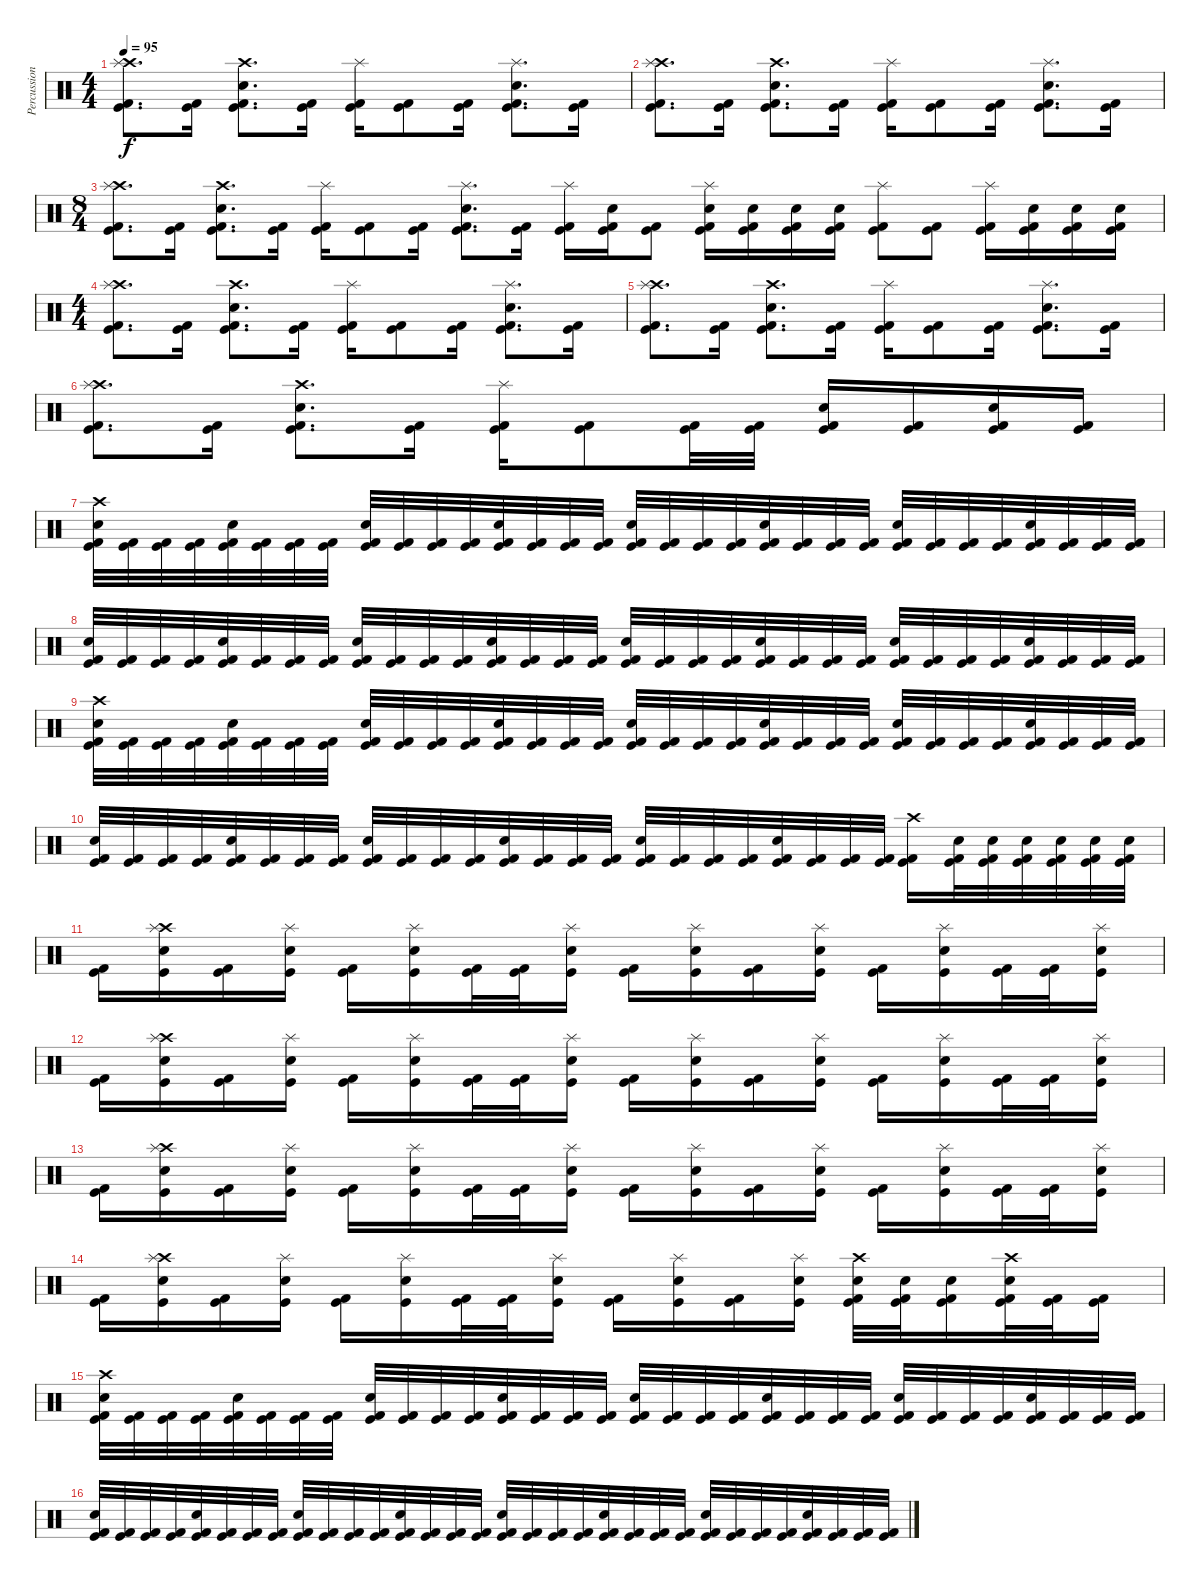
\track ("Percussion" "Percussion") {instrument percussion}
\staff {score}
\articulation defaults
\ts (4 4)
\tempo 95
\clef neutral
\ks c
("Crash high (hit)" "Splash (hit)" "Kick (hit)" "Kick (hit) 2").8{d dy f} ("Kick (hit)" "Kick (hit) 2").16 ("Crash high (hit)" "Snare (hit) 2" "Kick (hit)" "Kick (hit) 2").8{d} ("Kick (hit)" "Kick (hit) 2").16 ("Splash (hit)" "Kick (hit)" "Kick (hit) 2").16 ("Kick (hit)" "Kick (hit) 2").8 ("Kick (hit)" "Kick (hit) 2").16 ("Splash (hit)" "Snare (hit) 2" "Kick (hit)" "Kick (hit) 2").8{d} ("Kick (hit)" "Kick (hit) 2").16 |
("Crash high (hit)" "Splash (hit)" "Kick (hit)" "Kick (hit) 2").8{d} ("Kick (hit)" "Kick (hit) 2").16 ("Crash high (hit)" "Snare (hit) 2" "Kick (hit)" "Kick (hit) 2").8{d} ("Kick (hit)" "Kick (hit) 2").16 ("Splash (hit)" "Kick (hit)" "Kick (hit) 2").16 ("Kick (hit)" "Kick (hit) 2").8 ("Kick (hit)" "Kick (hit) 2").16 ("Splash (hit)" "Snare (hit) 2" "Kick (hit)" "Kick (hit) 2").8{d} ("Kick (hit)" "Kick (hit) 2").16 |
\ts (8 4)
("Crash high (hit)" "Splash (hit)" "Kick (hit)" "Kick (hit) 2").8{d} ("Kick (hit)" "Kick (hit) 2").16 ("Crash high (hit)" "Snare (hit) 2" "Kick (hit)" "Kick (hit) 2").8{d} ("Kick (hit)" "Kick (hit) 2").16 ("Splash (hit)" "Kick (hit)" "Kick (hit) 2").16 ("Kick (hit)" "Kick (hit) 2").8 ("Kick (hit)" "Kick (hit) 2").16 ("Splash (hit)" "Snare (hit) 2" "Kick (hit)" "Kick (hit) 2").8{d} ("Kick (hit)" "Kick (hit) 2").16 ("Splash (hit)" "Kick (hit)" "Kick (hit) 2").16 ("Snare (hit) 2" "Kick (hit)" "Kick (hit) 2").16 ("Kick (hit)" "Kick (hit) 2").8 ("Splash (hit)" "Snare (hit) 2" "Kick (hit)" "Kick (hit) 2").16 ("Snare (hit) 2" "Kick (hit)" "Kick (hit) 2").16 ("Snare (hit) 2" "Kick (hit)" "Kick (hit) 2").16 ("Snare (hit) 2" "Kick (hit)" "Kick (hit) 2").16 ("Splash (hit)" "Kick (hit)" "Kick (hit) 2").8 ("Kick (hit) 2" "Kick (hit)").8 ("Splash (hit)" "Kick (hit) 2" "Kick (hit)").16 ("Snare (hit) 2" "Kick (hit) 2" "Kick (hit)").16 ("Snare (hit) 2" "Kick (hit) 2" "Kick (hit)").16 ("Snare (hit) 2" "Kick (hit) 2" "Kick (hit)").16 |
\ts (4 4)
("Crash high (hit)" "Splash (hit)" "Kick (hit)" "Kick (hit) 2").8{d} ("Kick (hit)" "Kick (hit) 2").16 ("Crash high (hit)" "Snare (hit) 2" "Kick (hit)" "Kick (hit) 2").8{d} ("Kick (hit)" "Kick (hit) 2").16 ("Splash (hit)" "Kick (hit)" "Kick (hit) 2").16 ("Kick (hit)" "Kick (hit) 2").8 ("Kick (hit)" "Kick (hit) 2").16 ("Splash (hit)" "Snare (hit) 2" "Kick (hit)" "Kick (hit) 2").8{d} ("Kick (hit)" "Kick (hit) 2").16 |
("Crash high (hit)" "Splash (hit)" "Kick (hit)" "Kick (hit) 2").8{d} ("Kick (hit)" "Kick (hit) 2").16 ("Crash high (hit)" "Snare (hit) 2" "Kick (hit)" "Kick (hit) 2").8{d} ("Kick (hit)" "Kick (hit) 2").16 ("Splash (hit)" "Kick (hit)" "Kick (hit) 2").16 ("Kick (hit)" "Kick (hit) 2").8 ("Kick (hit)" "Kick (hit) 2").16 ("Splash (hit)" "Snare (hit) 2" "Kick (hit)" "Kick (hit) 2").8{d} ("Kick (hit)" "Kick (hit) 2").16 |
("Crash high (hit)" "Splash (hit)" "Kick (hit)" "Kick (hit) 2").8{d} ("Kick (hit)" "Kick (hit) 2").16 ("Crash high (hit)" "Snare (hit) 2" "Kick (hit)" "Kick (hit) 2").8{d} ("Kick (hit)" "Kick (hit) 2").16 ("Splash (hit)" "Kick (hit)" "Kick (hit) 2").16 ("Kick (hit)" "Kick (hit) 2").8 ("Kick (hit)" "Kick (hit) 2").32 ("Kick (hit)" "Kick (hit) 2").32 ("Snare (hit) 2" "Kick (hit)" "Kick (hit) 2").16 ("Kick (hit)" "Kick (hit) 2").16 ("Snare (hit) 2" "Kick (hit)" "Kick (hit) 2").16 ("Kick (hit)" "Kick (hit) 2").16 |
("Crash high (hit)" "Snare (hit) 2" "Kick (hit) 2" "Kick (hit)").32 ("Kick (hit) 2" "Kick (hit)").32 ("Kick (hit) 2" "Kick (hit)").32 ("Kick (hit) 2" "Kick (hit)").32 ("Snare (hit) 2" "Kick (hit) 2" "Kick (hit)").32 ("Kick (hit) 2" "Kick (hit)").32 ("Kick (hit) 2" "Kick (hit)").32 ("Kick (hit) 2" "Kick (hit)").32 ("Snare (hit) 2" "Kick (hit) 2" "Kick (hit)").32 ("Kick (hit) 2" "Kick (hit)").32 ("Kick (hit) 2" "Kick (hit)").32 ("Kick (hit) 2" "Kick (hit)").32 ("Snare (hit) 2" "Kick (hit) 2" "Kick (hit)").32 ("Kick (hit) 2" "Kick (hit)").32 ("Kick (hit) 2" "Kick (hit)").32 ("Kick (hit) 2" "Kick (hit)").32 ("Snare (hit) 2" "Kick (hit) 2" "Kick (hit)").32 ("Kick (hit) 2" "Kick (hit)").32 ("Kick (hit) 2" "Kick (hit)").32 ("Kick (hit) 2" "Kick (hit)").32 ("Snare (hit) 2" "Kick (hit) 2" "Kick (hit)").32 ("Kick (hit) 2" "Kick (hit)").32 ("Kick (hit) 2" "Kick (hit)").32 ("Kick (hit) 2" "Kick (hit)").32 ("Snare (hit) 2" "Kick (hit) 2" "Kick (hit)").32 ("Kick (hit) 2" "Kick (hit)").32 ("Kick (hit) 2" "Kick (hit)").32 ("Kick (hit) 2" "Kick (hit)").32 ("Snare (hit) 2" "Kick (hit) 2" "Kick (hit)").32 ("Kick (hit) 2" "Kick (hit)").32 ("Kick (hit) 2" "Kick (hit)").32 ("Kick (hit) 2" "Kick (hit)").32 |
("Snare (hit) 2" "Kick (hit) 2" "Kick (hit)").32 ("Kick (hit) 2" "Kick (hit)").32 ("Kick (hit) 2" "Kick (hit)").32 ("Kick (hit) 2" "Kick (hit)").32 ("Snare (hit) 2" "Kick (hit) 2" "Kick (hit)").32 ("Kick (hit) 2" "Kick (hit)").32 ("Kick (hit) 2" "Kick (hit)").32 ("Kick (hit) 2" "Kick (hit)").32 ("Snare (hit) 2" "Kick (hit) 2" "Kick (hit)").32 ("Kick (hit) 2" "Kick (hit)").32 ("Kick (hit) 2" "Kick (hit)").32 ("Kick (hit) 2" "Kick (hit)").32 ("Snare (hit) 2" "Kick (hit) 2" "Kick (hit)").32 ("Kick (hit) 2" "Kick (hit)").32 ("Kick (hit) 2" "Kick (hit)").32 ("Kick (hit) 2" "Kick (hit)").32 ("Snare (hit) 2" "Kick (hit) 2" "Kick (hit)").32 ("Kick (hit) 2" "Kick (hit)").32 ("Kick (hit) 2" "Kick (hit)").32 ("Kick (hit) 2" "Kick (hit)").32 ("Snare (hit) 2" "Kick (hit) 2" "Kick (hit)").32 ("Kick (hit) 2" "Kick (hit)").32 ("Kick (hit) 2" "Kick (hit)").32 ("Kick (hit) 2" "Kick (hit)").32 ("Snare (hit) 2" "Kick (hit) 2" "Kick (hit)").32 ("Kick (hit) 2" "Kick (hit)").32 ("Kick (hit) 2" "Kick (hit)").32 ("Kick (hit) 2" "Kick (hit)").32 ("Snare (hit) 2" "Kick (hit) 2" "Kick (hit)").32 ("Kick (hit) 2" "Kick (hit)").32 ("Kick (hit) 2" "Kick (hit)").32 ("Kick (hit) 2" "Kick (hit)").32 |
("Crash high (hit)" "Snare (hit) 2" "Kick (hit) 2" "Kick (hit)").32 ("Kick (hit) 2" "Kick (hit)").32 ("Kick (hit) 2" "Kick (hit)").32 ("Kick (hit) 2" "Kick (hit)").32 ("Snare (hit) 2" "Kick (hit) 2" "Kick (hit)").32 ("Kick (hit) 2" "Kick (hit)").32 ("Kick (hit) 2" "Kick (hit)").32 ("Kick (hit) 2" "Kick (hit)").32 ("Snare (hit) 2" "Kick (hit) 2" "Kick (hit)").32 ("Kick (hit) 2" "Kick (hit)").32 ("Kick (hit) 2" "Kick (hit)").32 ("Kick (hit) 2" "Kick (hit)").32 ("Snare (hit) 2" "Kick (hit) 2" "Kick (hit)").32 ("Kick (hit) 2" "Kick (hit)").32 ("Kick (hit) 2" "Kick (hit)").32 ("Kick (hit) 2" "Kick (hit)").32 ("Snare (hit) 2" "Kick (hit) 2" "Kick (hit)").32 ("Kick (hit) 2" "Kick (hit)").32 ("Kick (hit) 2" "Kick (hit)").32 ("Kick (hit) 2" "Kick (hit)").32 ("Snare (hit) 2" "Kick (hit) 2" "Kick (hit)").32 ("Kick (hit) 2" "Kick (hit)").32 ("Kick (hit) 2" "Kick (hit)").32 ("Kick (hit) 2" "Kick (hit)").32 ("Snare (hit) 2" "Kick (hit) 2" "Kick (hit)").32 ("Kick (hit) 2" "Kick (hit)").32 ("Kick (hit) 2" "Kick (hit)").32 ("Kick (hit) 2" "Kick (hit)").32 ("Snare (hit) 2" "Kick (hit) 2" "Kick (hit)").32 ("Kick (hit) 2" "Kick (hit)").32 ("Kick (hit) 2" "Kick (hit)").32 ("Kick (hit) 2" "Kick (hit)").32 |
("Snare (hit) 2" "Kick (hit) 2" "Kick (hit)").32 ("Kick (hit) 2" "Kick (hit)").32 ("Kick (hit) 2" "Kick (hit)").32 ("Kick (hit) 2" "Kick (hit)").32 ("Snare (hit) 2" "Kick (hit) 2" "Kick (hit)").32 ("Kick (hit) 2" "Kick (hit)").32 ("Kick (hit) 2" "Kick (hit)").32 ("Kick (hit) 2" "Kick (hit)").32 ("Snare (hit) 2" "Kick (hit) 2" "Kick (hit)").32 ("Kick (hit) 2" "Kick (hit)").32 ("Kick (hit) 2" "Kick (hit)").32 ("Kick (hit) 2" "Kick (hit)").32 ("Snare (hit) 2" "Kick (hit) 2" "Kick (hit)").32 ("Kick (hit) 2" "Kick (hit)").32 ("Kick (hit) 2" "Kick (hit)").32 ("Kick (hit) 2" "Kick (hit)").32 ("Snare (hit) 2" "Kick (hit) 2" "Kick (hit)").32 ("Kick (hit) 2" "Kick (hit)").32 ("Kick (hit) 2" "Kick (hit)").32 ("Kick (hit) 2" "Kick (hit)").32 ("Snare (hit) 2" "Kick (hit) 2" "Kick (hit)").32 ("Kick (hit) 2" "Kick (hit)").32 ("Kick (hit) 2" "Kick (hit)").32 ("Kick (hit) 2" "Kick (hit)").32 ("Crash high (hit)" "Kick (hit) 2" "Kick (hit)").16 ("Snare (hit) 2" "Kick (hit) 2" "Kick (hit)").32 ("Snare (hit) 2" "Kick (hit) 2" "Kick (hit)").32 ("Snare (hit) 2" "Kick (hit) 2" "Kick (hit)").32 ("Snare (hit) 2" "Kick (hit) 2" "Kick (hit)").32 ("Snare (hit) 2" "Kick (hit) 2" "Kick (hit)").32 ("Snare (hit) 2" "Kick (hit) 2" "Kick (hit)").32 |
("Kick (hit)" "Kick (hit) 2").16 ("Snare (hit) 2" "Kick (hit)" "Crash high (hit)" "Splash (hit)").16 ("Kick (hit)" "Kick (hit) 2").16 ("Snare (hit) 2" "Kick (hit)" "Splash (hit)").16 ("Kick (hit)" "Kick (hit) 2").16 ("Snare (hit) 2" "Kick (hit)" "Splash (hit)").16 ("Kick (hit)" "Kick (hit) 2").32 ("Kick (hit)" "Kick (hit) 2").32 ("Snare (hit) 2" "Kick (hit)" "Splash (hit)").16 ("Kick (hit)" "Kick (hit) 2").16 ("Snare (hit) 2" "Kick (hit)" "Splash (hit)").16 ("Kick (hit)" "Kick (hit) 2").16 ("Snare (hit) 2" "Kick (hit)" "Splash (hit)").16 ("Kick (hit)" "Kick (hit) 2").16 ("Snare (hit) 2" "Kick (hit)" "Splash (hit)").16 ("Kick (hit)" "Kick (hit) 2").32 ("Kick (hit)" "Kick (hit) 2").32 ("Snare (hit) 2" "Kick (hit)" "Splash (hit)").16 |
("Kick (hit)" "Kick (hit) 2").16 ("Snare (hit) 2" "Kick (hit)" "Crash high (hit)" "Splash (hit)").16 ("Kick (hit)" "Kick (hit) 2").16 ("Snare (hit) 2" "Kick (hit)" "Splash (hit)").16 ("Kick (hit)" "Kick (hit) 2").16 ("Snare (hit) 2" "Kick (hit)" "Splash (hit)").16 ("Kick (hit)" "Kick (hit) 2").32 ("Kick (hit)" "Kick (hit) 2").32 ("Snare (hit) 2" "Kick (hit)" "Splash (hit)").16 ("Kick (hit)" "Kick (hit) 2").16 ("Snare (hit) 2" "Kick (hit)" "Splash (hit)").16 ("Kick (hit)" "Kick (hit) 2").16 ("Snare (hit) 2" "Kick (hit)" "Splash (hit)").16 ("Kick (hit)" "Kick (hit) 2").16 ("Snare (hit) 2" "Kick (hit)" "Splash (hit)").16 ("Kick (hit)" "Kick (hit) 2").32 ("Kick (hit)" "Kick (hit) 2").32 ("Snare (hit) 2" "Kick (hit)" "Splash (hit)").16 |
("Kick (hit)" "Kick (hit) 2").16 ("Snare (hit) 2" "Kick (hit)" "Crash high (hit)" "Splash (hit)").16 ("Kick (hit)" "Kick (hit) 2").16 ("Snare (hit) 2" "Kick (hit)" "Splash (hit)").16 ("Kick (hit)" "Kick (hit) 2").16 ("Snare (hit) 2" "Kick (hit)" "Splash (hit)").16 ("Kick (hit)" "Kick (hit) 2").32 ("Kick (hit)" "Kick (hit) 2").32 ("Snare (hit) 2" "Kick (hit)" "Splash (hit)").16 ("Kick (hit)" "Kick (hit) 2").16 ("Snare (hit) 2" "Kick (hit)" "Splash (hit)").16 ("Kick (hit)" "Kick (hit) 2").16 ("Snare (hit) 2" "Kick (hit)" "Splash (hit)").16 ("Kick (hit)" "Kick (hit) 2").16 ("Snare (hit) 2" "Kick (hit)" "Splash (hit)").16 ("Kick (hit)" "Kick (hit) 2").32 ("Kick (hit)" "Kick (hit) 2").32 ("Snare (hit) 2" "Kick (hit)" "Splash (hit)").16 |
("Kick (hit)" "Kick (hit) 2").16 ("Snare (hit) 2" "Kick (hit)" "Crash high (hit)" "Splash (hit)").16 ("Kick (hit)" "Kick (hit) 2").16 ("Snare (hit) 2" "Kick (hit)" "Splash (hit)").16 ("Kick (hit)" "Kick (hit) 2").16 ("Snare (hit) 2" "Kick (hit)" "Splash (hit)").16 ("Kick (hit)" "Kick (hit) 2").32 ("Kick (hit)" "Kick (hit) 2").32 ("Snare (hit) 2" "Kick (hit)" "Splash (hit)").16 ("Kick (hit)" "Kick (hit) 2").16 ("Snare (hit) 2" "Kick (hit)" "Splash (hit)").16 ("Kick (hit)" "Kick (hit) 2").16 ("Snare (hit) 2" "Kick (hit)" "Splash (hit)").16 ("Crash high (hit)" "Kick (hit)" "Kick (hit) 2" "Snare (hit) 2").32 ("Kick (hit)" "Kick (hit) 2" "Snare (hit) 2").32 ("Kick (hit)" "Kick (hit) 2" "Snare (hit) 2").16 ("Crash high (hit)" "Snare (hit) 2" "Kick (hit) 2" "Kick (hit)").32 ("Kick (hit) 2" "Kick (hit)").32 ("Kick (hit) 2" "Kick (hit)").16 |
("Crash high (hit)" "Snare (hit) 2" "Kick (hit) 2" "Kick (hit)").32 ("Kick (hit) 2" "Kick (hit)").32 ("Kick (hit) 2" "Kick (hit)").32 ("Kick (hit) 2" "Kick (hit)").32 ("Snare (hit) 2" "Kick (hit) 2" "Kick (hit)").32 ("Kick (hit) 2" "Kick (hit)").32 ("Kick (hit) 2" "Kick (hit)").32 ("Kick (hit) 2" "Kick (hit)").32 ("Snare (hit) 2" "Kick (hit) 2" "Kick (hit)").32 ("Kick (hit) 2" "Kick (hit)").32 ("Kick (hit) 2" "Kick (hit)").32 ("Kick (hit) 2" "Kick (hit)").32 ("Snare (hit) 2" "Kick (hit) 2" "Kick (hit)").32 ("Kick (hit) 2" "Kick (hit)").32 ("Kick (hit) 2" "Kick (hit)").32 ("Kick (hit) 2" "Kick (hit)").32 ("Snare (hit) 2" "Kick (hit) 2" "Kick (hit)").32 ("Kick (hit) 2" "Kick (hit)").32 ("Kick (hit) 2" "Kick (hit)").32 ("Kick (hit) 2" "Kick (hit)").32 ("Snare (hit) 2" "Kick (hit) 2" "Kick (hit)").32 ("Kick (hit) 2" "Kick (hit)").32 ("Kick (hit) 2" "Kick (hit)").32 ("Kick (hit) 2" "Kick (hit)").32 ("Snare (hit) 2" "Kick (hit) 2" "Kick (hit)").32 ("Kick (hit) 2" "Kick (hit)").32 ("Kick (hit) 2" "Kick (hit)").32 ("Kick (hit) 2" "Kick (hit)").32 ("Snare (hit) 2" "Kick (hit) 2" "Kick (hit)").32 ("Kick (hit) 2" "Kick (hit)").32 ("Kick (hit) 2" "Kick (hit)").32 ("Kick (hit) 2" "Kick (hit)").32 |
("Snare (hit) 2" "Kick (hit) 2" "Kick (hit)").32 ("Kick (hit) 2" "Kick (hit)").32 ("Kick (hit) 2" "Kick (hit)").32 ("Kick (hit) 2" "Kick (hit)").32 ("Snare (hit) 2" "Kick (hit) 2" "Kick (hit)").32 ("Kick (hit) 2" "Kick (hit)").32 ("Kick (hit) 2" "Kick (hit)").32 ("Kick (hit) 2" "Kick (hit)").32 ("Snare (hit) 2" "Kick (hit) 2" "Kick (hit)").32 ("Kick (hit) 2" "Kick (hit)").32 ("Kick (hit) 2" "Kick (hit)").32 ("Kick (hit) 2" "Kick (hit)").32 ("Snare (hit) 2" "Kick (hit) 2" "Kick (hit)").32 ("Kick (hit) 2" "Kick (hit)").32 ("Kick (hit) 2" "Kick (hit)").32 ("Kick (hit) 2" "Kick (hit)").32 ("Snare (hit) 2" "Kick (hit) 2" "Kick (hit)").32 ("Kick (hit) 2" "Kick (hit)").32 ("Kick (hit) 2" "Kick (hit)").32 ("Kick (hit) 2" "Kick (hit)").32 ("Snare (hit) 2" "Kick (hit) 2" "Kick (hit)").32 ("Kick (hit) 2" "Kick (hit)").32 ("Kick (hit) 2" "Kick (hit)").32 ("Kick (hit) 2" "Kick (hit)").32 ("Snare (hit) 2" "Kick (hit) 2" "Kick (hit)").32 ("Kick (hit) 2" "Kick (hit)").32 ("Kick (hit) 2" "Kick (hit)").32 ("Kick (hit) 2" "Kick (hit)").32 ("Snare (hit) 2" "Kick (hit) 2" "Kick (hit)").32 ("Kick (hit) 2" "Kick (hit)").32 ("Kick (hit) 2" "Kick (hit)").32 ("Kick (hit) 2" "Kick (hit)").32
